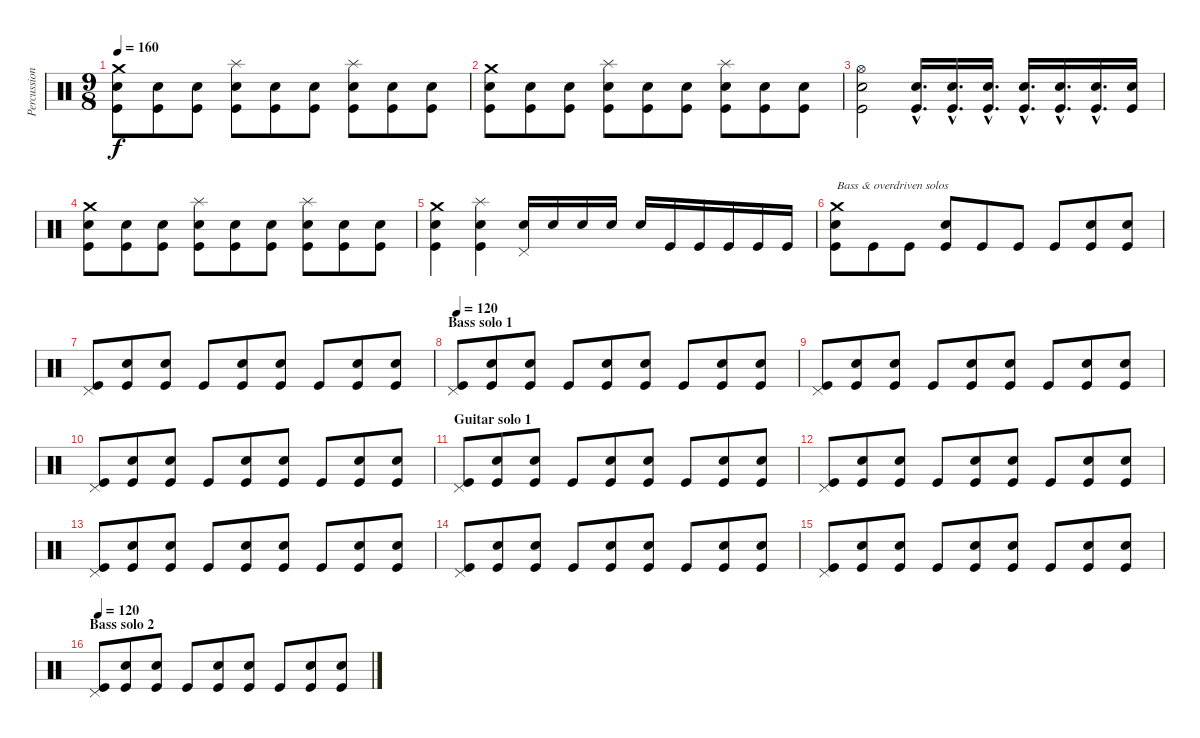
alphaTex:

\track ("Percussion" "Percussion") {instrument percussion}
\staff {score}
\articulation defaults
\ts (9 8)
\tempo 160
\clef neutral
\ks c
("Crash medium (hit)" "Snare (hit) 2" "Kick (hit)").8{dy f} ("Snare (hit) 2" "Kick (hit)").8 ("Snare (hit) 2" "Kick (hit)").8 ("Splash (hit)" "Snare (hit) 2" "Kick (hit)").8 ("Snare (hit) 2" "Kick (hit)").8 ("Snare (hit) 2" "Kick (hit)").8 ("Splash (hit)" "Snare (hit) 2" "Kick (hit)").8 ("Snare (hit) 2" "Kick (hit)").8 ("Snare (hit) 2" "Kick (hit)").8 |
("Crash medium (hit)" "Snare (hit) 2" "Kick (hit)").8 ("Snare (hit) 2" "Kick (hit)").8 ("Snare (hit) 2" "Kick (hit)").8 ("Splash (hit)" "Snare (hit) 2" "Kick (hit)").8 ("Snare (hit) 2" "Kick (hit)").8 ("Snare (hit) 2" "Kick (hit)").8 ("Splash (hit)" "Snare (hit) 2" "Kick (hit)").8 ("Snare (hit) 2" "Kick (hit)").8 ("Snare (hit) 2" "Kick (hit)").8 |
("Hi-Hat (open)" "Snare (hit) 2" "Kick (hit)").2 ("Snare (hit) 2"{hac} "Kick (hit)"{hac}).16{d} ("Snare (hit) 2"{hac} "Kick (hit)"{hac}).16{d} ("Snare (hit) 2"{hac} "Kick (hit)"{hac}).16{d} ("Snare (hit) 2"{hac} "Kick (hit)"{hac}).16{d} ("Snare (hit) 2"{hac} "Kick (hit)"{hac}).16{d} ("Snare (hit) 2"{hac} "Kick (hit)"{hac}).16{d} ("Snare (hit) 2" "Kick (hit)").16 |
("Crash medium (hit)" "Snare (hit) 2" "Kick (hit)").8 ("Snare (hit) 2" "Kick (hit)").8 ("Snare (hit) 2" "Kick (hit)").8 ("Splash (hit)" "Snare (hit) 2" "Kick (hit)").8 ("Snare (hit) 2" "Kick (hit)").8 ("Snare (hit) 2" "Kick (hit)").8 ("Splash (hit)" "Snare (hit) 2" "Kick (hit)").8 ("Snare (hit) 2" "Kick (hit)").8 ("Snare (hit) 2" "Kick (hit)").8 |
("Crash medium (hit)" "Snare (hit) 2" "Kick (hit)").4 ("Splash (hit)" "Snare (hit) 2" "Kick (hit)").4 ("Pedal Hi-Hat (hit)" "Snare (hit) 2").16 "Snare (hit) 2".16 "Snare (hit) 2".16 "Snare (hit) 2".16 "Snare (hit) 2".16 "Kick (hit)".16 "Kick (hit)".16 "Kick (hit)".16 "Kick (hit)".16 "Kick (hit)".16 |
("Crash medium (hit)" "Snare (hit) 2" "Kick (hit)").8{txt "Bass & overdriven solos"} "Kick (hit)".8 "Kick (hit)".8 ("Snare (hit) 2" "Kick (hit)").8 "Kick (hit)".8 "Kick (hit)".8 "Kick (hit)".8 ("Snare (hit) 2" "Kick (hit)").8 ("Snare (hit) 2" "Kick (hit)").8 |
("Pedal Hi-Hat (hit)" "Kick (hit)").8 ("Snare (hit) 2" "Kick (hit)").8 ("Snare (hit) 2" "Kick (hit)").8 "Kick (hit)".8 ("Snare (hit) 2" "Kick (hit)").8 ("Snare (hit) 2" "Kick (hit)").8 "Kick (hit)".8 ("Snare (hit) 2" "Kick (hit)").8 ("Snare (hit) 2" "Kick (hit)").8 |
\section ("" "Bass solo 1")
\tempo 120
("Pedal Hi-Hat (hit)" "Kick (hit)").8 ("Snare (hit) 2" "Kick (hit)").8 ("Snare (hit) 2" "Kick (hit)").8 "Kick (hit)".8 ("Snare (hit) 2" "Kick (hit)").8 ("Snare (hit) 2" "Kick (hit)").8 "Kick (hit)".8 ("Snare (hit) 2" "Kick (hit)").8 ("Snare (hit) 2" "Kick (hit)").8 |
("Pedal Hi-Hat (hit)" "Kick (hit)").8 ("Snare (hit) 2" "Kick (hit)").8 ("Snare (hit) 2" "Kick (hit)").8 "Kick (hit)".8 ("Snare (hit) 2" "Kick (hit)").8 ("Snare (hit) 2" "Kick (hit)").8 "Kick (hit)".8 ("Snare (hit) 2" "Kick (hit)").8 ("Snare (hit) 2" "Kick (hit)").8 |
("Pedal Hi-Hat (hit)" "Kick (hit)").8 ("Snare (hit) 2" "Kick (hit)").8 ("Snare (hit) 2" "Kick (hit)").8 "Kick (hit)".8 ("Snare (hit) 2" "Kick (hit)").8 ("Snare (hit) 2" "Kick (hit)").8 "Kick (hit)".8 ("Snare (hit) 2" "Kick (hit)").8 ("Snare (hit) 2" "Kick (hit)").8 |
\section ("" "Guitar solo 1")
("Pedal Hi-Hat (hit)" "Kick (hit)").8 ("Snare (hit) 2" "Kick (hit)").8 ("Snare (hit) 2" "Kick (hit)").8 "Kick (hit)".8 ("Snare (hit) 2" "Kick (hit)").8 ("Snare (hit) 2" "Kick (hit)").8 "Kick (hit)".8 ("Snare (hit) 2" "Kick (hit)").8 ("Snare (hit) 2" "Kick (hit)").8 |
("Pedal Hi-Hat (hit)" "Kick (hit)").8 ("Snare (hit) 2" "Kick (hit)").8 ("Snare (hit) 2" "Kick (hit)").8 "Kick (hit)".8 ("Snare (hit) 2" "Kick (hit)").8 ("Snare (hit) 2" "Kick (hit)").8 "Kick (hit)".8 ("Snare (hit) 2" "Kick (hit)").8 ("Snare (hit) 2" "Kick (hit)").8 |
("Pedal Hi-Hat (hit)" "Kick (hit)").8 ("Snare (hit) 2" "Kick (hit)").8 ("Snare (hit) 2" "Kick (hit)").8 "Kick (hit)".8 ("Snare (hit) 2" "Kick (hit)").8 ("Snare (hit) 2" "Kick (hit)").8 "Kick (hit)".8 ("Snare (hit) 2" "Kick (hit)").8 ("Snare (hit) 2" "Kick (hit)").8 |
("Pedal Hi-Hat (hit)" "Kick (hit)").8 ("Snare (hit) 2" "Kick (hit)").8 ("Snare (hit) 2" "Kick (hit)").8 "Kick (hit)".8 ("Snare (hit) 2" "Kick (hit)").8 ("Snare (hit) 2" "Kick (hit)").8 "Kick (hit)".8 ("Snare (hit) 2" "Kick (hit)").8 ("Snare (hit) 2" "Kick (hit)").8 |
("Pedal Hi-Hat (hit)" "Kick (hit)").8 ("Snare (hit) 2" "Kick (hit)").8 ("Snare (hit) 2" "Kick (hit)").8 "Kick (hit)".8 ("Snare (hit) 2" "Kick (hit)").8 ("Snare (hit) 2" "Kick (hit)").8 "Kick (hit)".8 ("Snare (hit) 2" "Kick (hit)").8 ("Snare (hit) 2" "Kick (hit)").8 |
\section ("" "Bass solo 2")
\tempo 120
("Pedal Hi-Hat (hit)" "Kick (hit)").8 ("Snare (hit) 2" "Kick (hit)").8 ("Snare (hit) 2" "Kick (hit)").8 "Kick (hit)".8 ("Snare (hit) 2" "Kick (hit)").8 ("Snare (hit) 2" "Kick (hit)").8 "Kick (hit)".8 ("Snare (hit) 2" "Kick (hit)").8 ("Snare (hit) 2" "Kick (hit)").8
